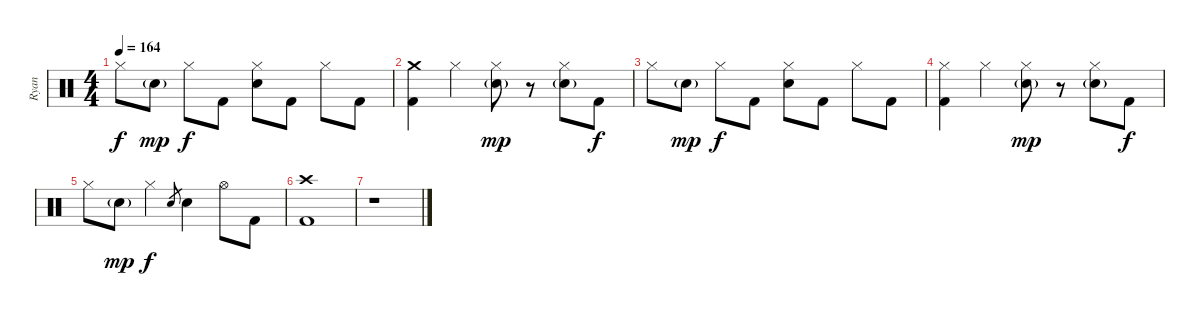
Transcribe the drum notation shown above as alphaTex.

\track ("Ryan" "Ryan") {instrument percussion}
\staff {score}
\articulation defaults
\ts (4 4)
\tempo 164
\clef neutral
\ks c "Hi-Hat (closed)".8{dy f} "Electric Snare (hit)"{g}.8{dy mp} "Hi-Hat (closed)".8{dy f} "Kick (hit) 2".8
("Hi-Hat (closed)" "Electric Snare (hit)").8 "Kick (hit) 2".8 "Hi-Hat (closed)".8 "Kick (hit) 2".8 |
("Crash medium (hit)" "Kick (hit) 2").4 "Hi-Hat (closed)".4 ("Hi-Hat (closed)" "Electric Snare (hit)"{g}).8{dy mp} r.8 ("Hi-Hat (closed)" "Electric Snare (hit)"{g}).8 "Kick (hit) 2".8{dy f} |
"Hi-Hat (closed)".8 "Electric Snare (hit)"{g}.8{dy mp} "Hi-Hat (closed)".8{dy f} "Kick (hit) 2".8 ("Hi-Hat (closed)" "Electric Snare (hit)").8 "Kick (hit) 2".8 "Hi-Hat (closed)".8 "Kick (hit) 2".8 |
("Hi-Hat (closed)" "Kick (hit) 2").4 "Hi-Hat (closed)".4 ("Hi-Hat (closed)" "Electric Snare (hit)"{g}).8{dy mp} r.8 ("Hi-Hat (closed)" "Electric Snare (hit)"{g}).8 "Kick (hit) 2".8{dy f} |
"Hi-Hat (closed)".8 "Electric Snare (hit)"{g}.8{dy mp} "Hi-Hat (closed)".4{dy f} "Electric Snare (hit)".8{gr} "Electric Snare (hit)".4 "Hi-Hat (open)".8 "Kick (hit) 2".8 |
("Crash high (hit)" "Kick (hit) 2").1 |
r.1
